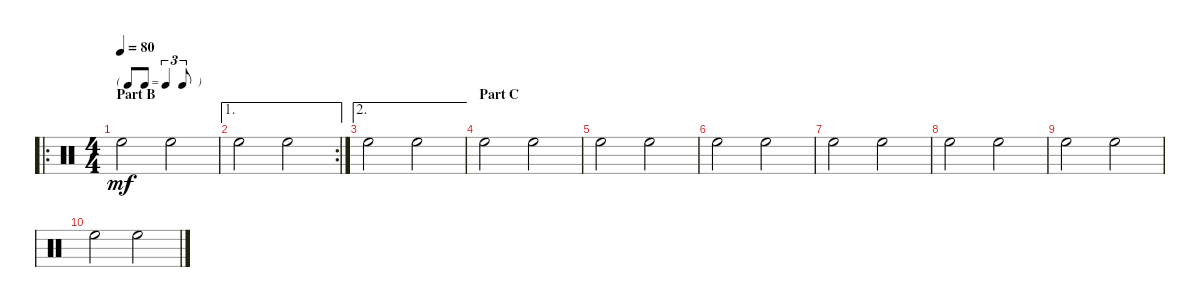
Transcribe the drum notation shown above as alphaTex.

\defaultSystemsLayout 4
\bracketExtendMode groupsimilarinstruments
\singleTrackTrackNamePolicy hidden
\multiTrackTrackNamePolicy hidden
\otherSystemsTrackNameOrientation horizontal
\track ("Drumkit" "Drums") {instrument percussion}
\staff {score}
\articulation defaults
\ro
\ts (4 4)
\tf triplet8th
\section ("" "Part B")
\tempo 80
\clef neutral
\scale
0.367347
\ks c "High Floor Tom (hit)".2{dy mf} "High Floor Tom (hit)".2
|
\ae 1
\rc 2
\scale
0.333333 "High Floor Tom (hit)".2 "High Floor Tom (hit)".2 |
\ae 2
\scale
0.333333 "High Floor Tom (hit)".2 "High Floor Tom (hit)".2 |
\section ("" "Part C")
\scale
0.333333 "High Floor Tom (hit)".2 "High Floor Tom (hit)".2 |
\scale
0.333333 "High Floor Tom (hit)".2 "High Floor Tom (hit)".2 |
\scale
0.333333 "High Floor Tom (hit)".2 "High Floor Tom (hit)".2 |
\scale
0.333333 "High Floor Tom (hit)".2 "High Floor Tom (hit)".2 |
\scale
0.333333 "High Floor Tom (hit)".2 "High Floor Tom (hit)".2 |
"High Floor Tom (hit)".2 "High Floor Tom (hit)".2 |
"High Floor Tom (hit)".2 "High Floor Tom (hit)".2
